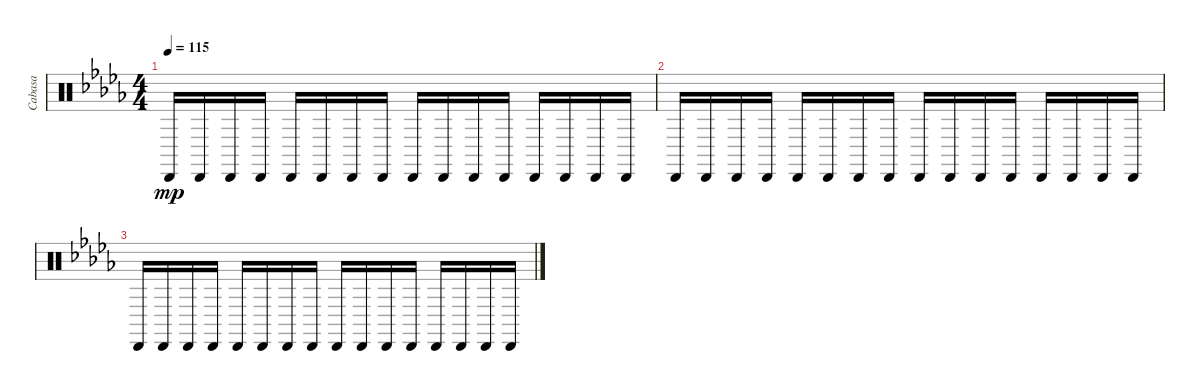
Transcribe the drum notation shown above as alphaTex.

\track ("Cabasa" "Cabasa") {instrument percussion}
\staff {score}
\articulation defaults
\ts (4 4)
\tempo 115
\clef neutral
\ks db "Cabasa (hit)".16{dy mp} "Cabasa (hit)".16 "Cabasa (hit)".16 "Cabasa (hit)".16 "Cabasa (hit)".16 "Cabasa (hit)".16 "Cabasa (hit)".16 "Cabasa (hit)".16 "Cabasa (hit)".16 "Cabasa (hit)".16 "Cabasa (hit)".16 "Cabasa (hit)".16 "Cabasa (hit)".16 "Cabasa (hit)".16 "Cabasa (hit)".16 "Cabasa (hit)".16
|
"Cabasa (hit)".16 "Cabasa (hit)".16 "Cabasa (hit)".16 "Cabasa (hit)".16 "Cabasa (hit)".16 "Cabasa (hit)".16 "Cabasa (hit)".16 "Cabasa (hit)".16 "Cabasa (hit)".16 "Cabasa (hit)".16 "Cabasa (hit)".16 "Cabasa (hit)".16 "Cabasa (hit)".16 "Cabasa (hit)".16 "Cabasa (hit)".16 "Cabasa (hit)".16 |
"Cabasa (hit)".16 "Cabasa (hit)".16 "Cabasa (hit)".16 "Cabasa (hit)".16 "Cabasa (hit)".16 "Cabasa (hit)".16 "Cabasa (hit)".16 "Cabasa (hit)".16 "Cabasa (hit)".16 "Cabasa (hit)".16 "Cabasa (hit)".16 "Cabasa (hit)".16 "Cabasa (hit)".16 "Cabasa (hit)".16 "Cabasa (hit)".16 "Cabasa (hit)".16
